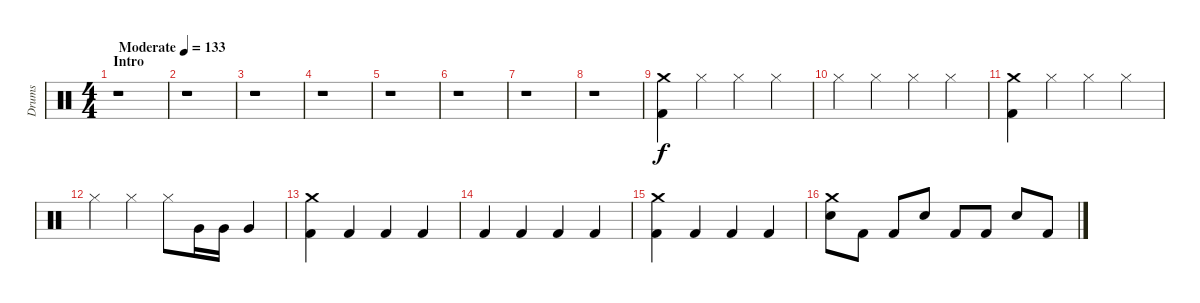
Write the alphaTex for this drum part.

\track ("Drums" "Drums") {instrument percussion}
\staff {score}
\articulation defaults
\ts (4 4)
\section ("" "Intro")
\tempo (133 "Moderate")
\clef neutral
\ks c
r.1{dy f} |
r.1 |
r.1 |
r.1 |
r.1 |
r.1 |
r.1 |
r.1 |
("Crash medium (hit)" "Kick (hit) 2").4 "Hi-Hat (closed)".4 "Hi-Hat (closed)".4 "Hi-Hat (closed)".4 |
"Hi-Hat (closed)".4 "Hi-Hat (closed)".4 "Hi-Hat (closed)".4 "Hi-Hat (closed)".4 |
("Crash medium (hit)" "Kick (hit) 2").4 "Hi-Hat (closed)".4 "Hi-Hat (closed)".4 "Hi-Hat (closed)".4 |
"Hi-Hat (closed)".4 "Hi-Hat (closed)".4 "Hi-Hat (closed)".8 "Very Low Tom (hit)".16 "Very Low Tom (hit)".16 "Very Low Tom (hit)".4 |
("Crash medium (hit)" "Kick (hit) 2").4 "Kick (hit) 2".4 "Kick (hit) 2".4 "Kick (hit) 2".4 |
"Kick (hit) 2".4 "Kick (hit) 2".4 "Kick (hit) 2".4 "Kick (hit) 2".4 |
("Crash medium (hit)" "Kick (hit) 2").4 "Kick (hit) 2".4 "Kick (hit) 2".4 "Kick (hit) 2".4 |
("Crash medium (hit)" "Snare (hit) 2").8 "Kick (hit) 2".8 "Kick (hit) 2".8 "Snare (hit) 2".8 "Kick (hit) 2".8 "Kick (hit) 2".8 "Snare (hit) 2".8 "Kick (hit) 2".8
